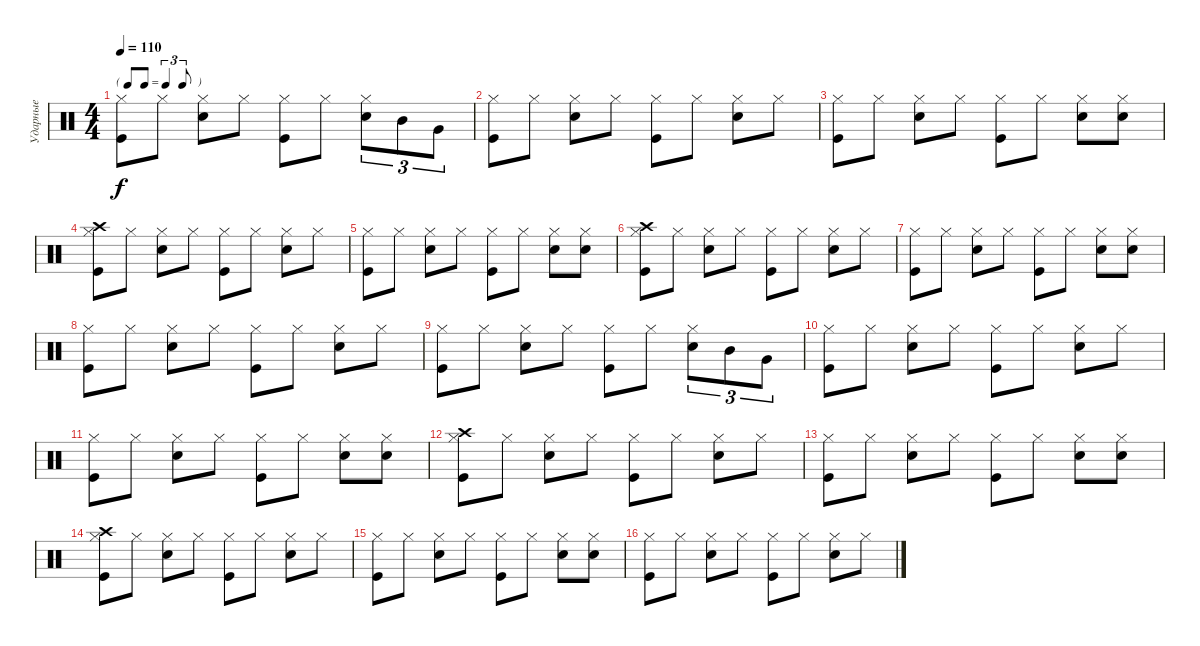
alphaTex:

\track ("Ударные" "Ударные") {instrument percussion}
\staff {score}
\articulation defaults
\ts (4 4)
\tf triplet8th
\tempo 110
\clef neutral
\ks c
("Hi-Hat (closed)" "Kick (hit)").8{dy f} "Hi-Hat (closed)".8 ("Hi-Hat (closed)" "Snare (hit) 2").8 "Hi-Hat (closed)".8 ("Hi-Hat (closed)" "Kick (hit)").8 "Hi-Hat (closed)".8 ("Hi-Hat (closed)" "Snare (hit) 2").8{tu (3 2)} "Mid Tom (hit)".8{tu (3 2)} "Very Low Tom (hit)".8{tu (3 2)} |
("Hi-Hat (closed)" "Kick (hit)").8 "Hi-Hat (closed)".8 ("Hi-Hat (closed)" "Snare (hit) 2").8 "Hi-Hat (closed)".8 ("Hi-Hat (closed)" "Kick (hit)").8 "Hi-Hat (closed)".8 ("Hi-Hat (closed)" "Snare (hit) 2").8 "Hi-Hat (closed)".8 |
("Hi-Hat (closed)" "Kick (hit)").8 "Hi-Hat (closed)".8 ("Hi-Hat (closed)" "Snare (hit) 2").8 "Hi-Hat (closed)".8 ("Hi-Hat (closed)" "Kick (hit)").8 "Hi-Hat (closed)".8 ("Hi-Hat (closed)" "Snare (hit) 2").8 ("Hi-Hat (closed)" "Snare (hit) 2").8 |
("Hi-Hat (closed)" "Kick (hit)" "Crash high (hit)").8 "Hi-Hat (closed)".8 ("Hi-Hat (closed)" "Snare (hit) 2").8 "Hi-Hat (closed)".8 ("Hi-Hat (closed)" "Kick (hit)").8 "Hi-Hat (closed)".8 ("Hi-Hat (closed)" "Snare (hit) 2").8 "Hi-Hat (closed)".8 |
("Hi-Hat (closed)" "Kick (hit)").8 "Hi-Hat (closed)".8 ("Hi-Hat (closed)" "Snare (hit) 2").8 "Hi-Hat (closed)".8 ("Hi-Hat (closed)" "Kick (hit)").8 "Hi-Hat (closed)".8 ("Hi-Hat (closed)" "Snare (hit) 2").8 ("Hi-Hat (closed)" "Snare (hit) 2").8 |
("Hi-Hat (closed)" "Kick (hit)" "Crash high (hit)").8 "Hi-Hat (closed)".8 ("Hi-Hat (closed)" "Snare (hit) 2").8 "Hi-Hat (closed)".8 ("Hi-Hat (closed)" "Kick (hit)").8 "Hi-Hat (closed)".8 ("Hi-Hat (closed)" "Snare (hit) 2").8 "Hi-Hat (closed)".8 |
("Hi-Hat (closed)" "Kick (hit)").8 "Hi-Hat (closed)".8 ("Hi-Hat (closed)" "Snare (hit) 2").8 "Hi-Hat (closed)".8 ("Hi-Hat (closed)" "Kick (hit)").8 "Hi-Hat (closed)".8 ("Hi-Hat (closed)" "Snare (hit) 2").8 ("Hi-Hat (closed)" "Snare (hit) 2").8 |
("Hi-Hat (closed)" "Kick (hit)").8 "Hi-Hat (closed)".8 ("Hi-Hat (closed)" "Snare (hit) 2").8 "Hi-Hat (closed)".8 ("Hi-Hat (closed)" "Kick (hit)").8 "Hi-Hat (closed)".8 ("Hi-Hat (closed)" "Snare (hit) 2").8 "Hi-Hat (closed)".8 |
("Hi-Hat (closed)" "Kick (hit)").8 "Hi-Hat (closed)".8 ("Hi-Hat (closed)" "Snare (hit) 2").8 "Hi-Hat (closed)".8 ("Hi-Hat (closed)" "Kick (hit)").8 "Hi-Hat (closed)".8 ("Hi-Hat (closed)" "Snare (hit) 2").8{tu (3 2)} "Mid Tom (hit)".8{tu (3 2)} "Very Low Tom (hit)".8{tu (3 2)} |
("Hi-Hat (closed)" "Kick (hit)").8 "Hi-Hat (closed)".8 ("Hi-Hat (closed)" "Snare (hit) 2").8 "Hi-Hat (closed)".8 ("Hi-Hat (closed)" "Kick (hit)").8 "Hi-Hat (closed)".8 ("Hi-Hat (closed)" "Snare (hit) 2").8 "Hi-Hat (closed)".8 |
("Hi-Hat (closed)" "Kick (hit)").8 "Hi-Hat (closed)".8 ("Hi-Hat (closed)" "Snare (hit) 2").8 "Hi-Hat (closed)".8 ("Hi-Hat (closed)" "Kick (hit)").8 "Hi-Hat (closed)".8 ("Hi-Hat (closed)" "Snare (hit) 2").8 ("Hi-Hat (closed)" "Snare (hit) 2").8 |
("Hi-Hat (closed)" "Kick (hit)" "Crash high (hit)").8 "Hi-Hat (closed)".8 ("Hi-Hat (closed)" "Snare (hit) 2").8 "Hi-Hat (closed)".8 ("Hi-Hat (closed)" "Kick (hit)").8 "Hi-Hat (closed)".8 ("Hi-Hat (closed)" "Snare (hit) 2").8 "Hi-Hat (closed)".8 |
("Hi-Hat (closed)" "Kick (hit)").8 "Hi-Hat (closed)".8 ("Hi-Hat (closed)" "Snare (hit) 2").8 "Hi-Hat (closed)".8 ("Hi-Hat (closed)" "Kick (hit)").8 "Hi-Hat (closed)".8 ("Hi-Hat (closed)" "Snare (hit) 2").8 ("Hi-Hat (closed)" "Snare (hit) 2").8 |
("Hi-Hat (closed)" "Kick (hit)" "Crash high (hit)").8 "Hi-Hat (closed)".8 ("Hi-Hat (closed)" "Snare (hit) 2").8 "Hi-Hat (closed)".8 ("Hi-Hat (closed)" "Kick (hit)").8 "Hi-Hat (closed)".8 ("Hi-Hat (closed)" "Snare (hit) 2").8 "Hi-Hat (closed)".8 |
("Hi-Hat (closed)" "Kick (hit)").8 "Hi-Hat (closed)".8 ("Hi-Hat (closed)" "Snare (hit) 2").8 "Hi-Hat (closed)".8 ("Hi-Hat (closed)" "Kick (hit)").8 "Hi-Hat (closed)".8 ("Hi-Hat (closed)" "Snare (hit) 2").8 ("Hi-Hat (closed)" "Snare (hit) 2").8 |
("Hi-Hat (closed)" "Kick (hit)").8 "Hi-Hat (closed)".8 ("Hi-Hat (closed)" "Snare (hit) 2").8 "Hi-Hat (closed)".8 ("Hi-Hat (closed)" "Kick (hit)").8 "Hi-Hat (closed)".8 ("Hi-Hat (closed)" "Snare (hit) 2").8 "Hi-Hat (closed)".8
